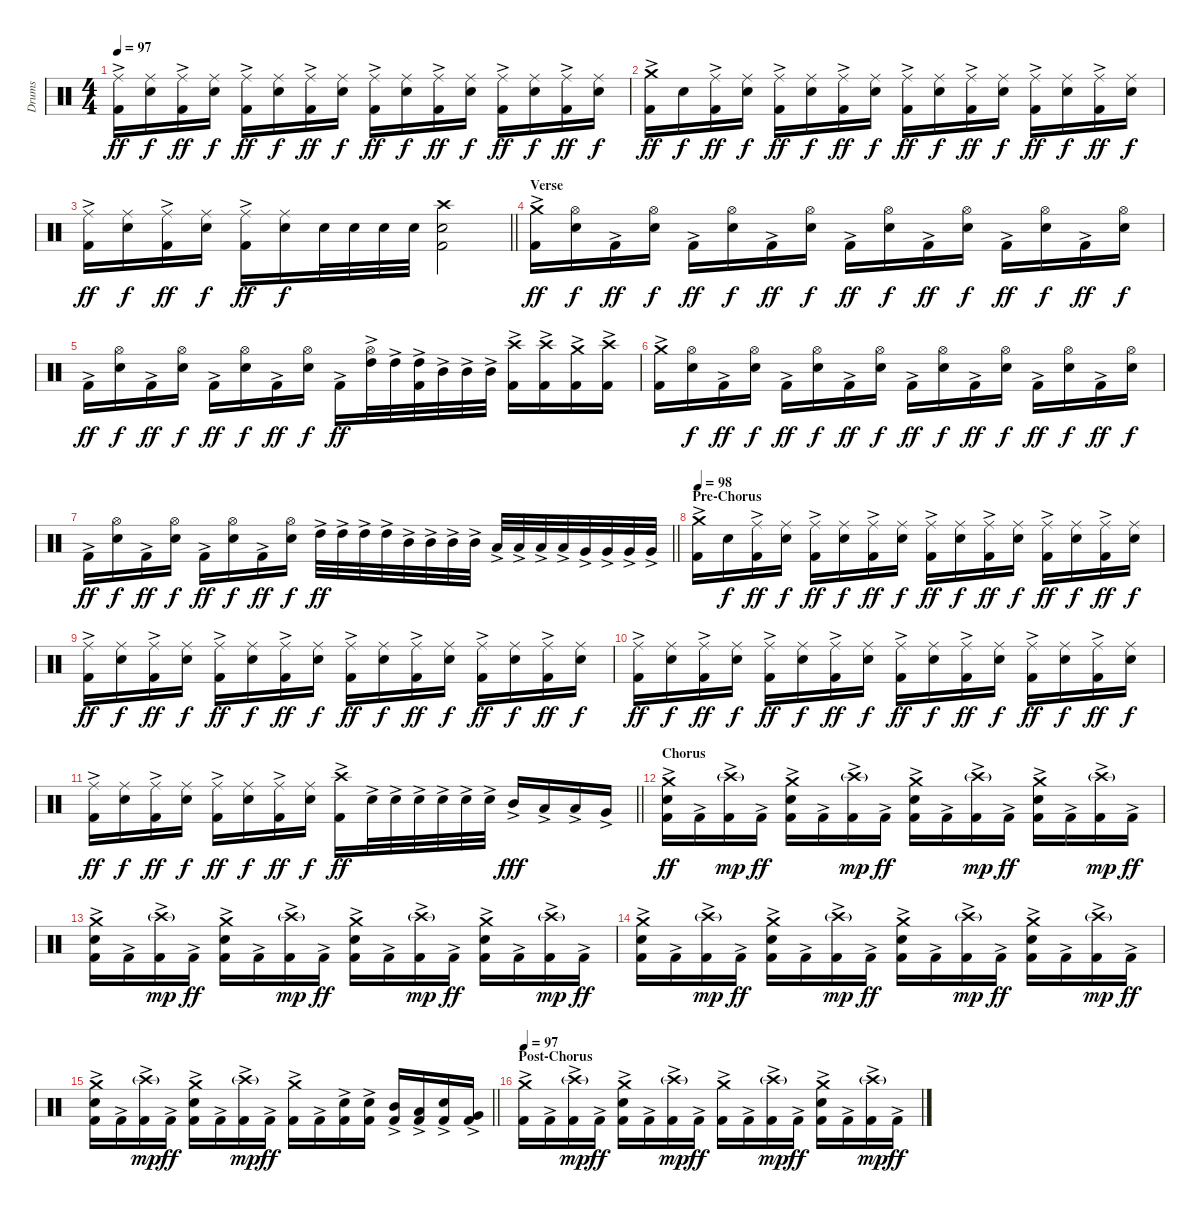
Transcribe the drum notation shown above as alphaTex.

\track ("Drums" "Drums") {instrument percussion}
\staff {score}
\articulation defaults
\ts (4 4)
\tempo 97
\clef neutral
\ks c
("Kick (hit) 2"{ac} "Ride (middle)").16{dy ff} ("Snare (hit) 2" "Ride (middle)").16{dy f} ("Kick (hit) 2"{ac} "Ride (middle)").16{dy ff} ("Snare (hit) 2" "Ride (middle)").16{dy f} ("Kick (hit) 2"{ac} "Ride (middle)").16{dy ff} ("Snare (hit) 2" "Ride (middle)").16{dy f} ("Kick (hit) 2"{ac} "Ride (middle)").16{dy ff} ("Snare (hit) 2" "Ride (middle)").16{dy f} ("Kick (hit) 2"{ac} "Ride (middle)").16{dy ff} ("Snare (hit) 2" "Ride (middle)").16{dy f} ("Kick (hit) 2"{ac} "Ride (middle)").16{dy ff} ("Snare (hit) 2" "Ride (middle)").16{dy f} ("Kick (hit) 2"{ac} "Ride (middle)").16{dy ff} ("Snare (hit) 2" "Ride (middle)").16{dy f} ("Kick (hit) 2"{ac} "Ride (middle)").16{dy ff} ("Snare (hit) 2" "Ride (middle)").16{dy f} |
("Kick (hit) 2"{ac} "Crash medium (hit)").16{dy ff} "Snare (hit) 2".16{dy f} ("Kick (hit) 2"{ac} "Ride (middle)").16{dy ff} ("Snare (hit) 2" "Ride (middle)").16{dy f} ("Kick (hit) 2"{ac} "Ride (middle)").16{dy ff} ("Snare (hit) 2" "Ride (middle)").16{dy f} ("Kick (hit) 2"{ac} "Ride (middle)").16{dy ff} ("Snare (hit) 2" "Ride (middle)").16{dy f} ("Kick (hit) 2"{ac} "Ride (middle)").16{dy ff} ("Snare (hit) 2" "Ride (middle)").16{dy f} ("Kick (hit) 2"{ac} "Ride (middle)").16{dy ff} ("Snare (hit) 2" "Ride (middle)").16{dy f} ("Kick (hit) 2"{ac} "Ride (middle)").16{dy ff} ("Snare (hit) 2" "Ride (middle)").16{dy f} ("Kick (hit) 2"{ac} "Ride (middle)").16{dy ff} ("Snare (hit) 2" "Ride (middle)").16{dy f} |
\barLineRight lightlight
("Kick (hit) 2"{ac} "Ride (middle)").16{dy ff} ("Snare (hit) 2" "Ride (middle)").16{dy f} ("Kick (hit) 2"{ac} "Ride (middle)").16{dy ff} ("Snare (hit) 2" "Ride (middle)").16{dy f} ("Kick (hit) 2"{ac} "Ride (middle)").16{dy ff} ("Snare (hit) 2" "Ride (middle)").16{dy f} "Snare (hit) 2".32 "Snare (hit) 2".32 "Snare (hit) 2".32 "Snare (hit) 2".32 ("Kick (hit) 2" "Snare (hit) 2" "Crash high (hit)").2 |
\section ("" "Verse")
("Kick (hit) 2"{ac} "Crash medium (hit)").16{dy ff} ("Snare (hit) 2" "Hi-Hat (open)").16{dy f} "Kick (hit) 2"{ac}.16{dy ff} ("Snare (hit) 2" "Hi-Hat (open)").16{dy f} "Kick (hit) 2"{ac}.16{dy ff} ("Snare (hit) 2" "Hi-Hat (open)").16{dy f} "Kick (hit) 2"{ac}.16{dy ff} ("Snare (hit) 2" "Hi-Hat (open)").16{dy f} "Kick (hit) 2"{ac}.16{dy ff} ("Snare (hit) 2" "Hi-Hat (open)").16{dy f} "Kick (hit) 2"{ac}.16{dy ff} ("Snare (hit) 2" "Hi-Hat (open)").16{dy f} "Kick (hit) 2"{ac}.16{dy ff} ("Snare (hit) 2" "Hi-Hat (open)").16{dy f} "Kick (hit) 2"{ac}.16{dy ff} ("Snare (hit) 2" "Hi-Hat (open)").16{dy f} |
"Kick (hit) 2"{ac}.16{dy ff} ("Snare (hit) 2" "Hi-Hat (open)").16{dy f} "Kick (hit) 2"{ac}.16{dy ff} ("Snare (hit) 2" "Hi-Hat (open)").16{dy f} "Kick (hit) 2"{ac}.16{dy ff} ("Snare (hit) 2" "Hi-Hat (open)").16{dy f} "Kick (hit) 2"{ac}.16{dy ff} ("Snare (hit) 2" "Hi-Hat (open)").16{dy f} "Kick (hit) 2"{ac}.16{dy ff} ("High Tom (hit)"{ac} "Hi-Hat (open)").32 "High Tom (hit)"{ac}.32 ("Kick (hit) 2"{ac} "High Tom (hit)"{ac}).32 "Mid Tom (hit)"{ac}.32 "Mid Tom (hit)"{ac}.32 "Mid Tom (hit)"{ac}.32 ("Kick (hit) 2"{ac} "Crash high (hit)").16 ("Kick (hit) 2"{ac} "Crash high (hit)").16 ("Kick (hit) 2"{ac} "Crash medium (hit)").16 ("Kick (hit) 2"{ac} "Crash high (hit)").16 |
("Kick (hit) 2"{ac} "Crash medium (hit)").16 ("Snare (hit) 2" "Hi-Hat (open)").16{dy f} "Kick (hit) 2"{ac}.16{dy ff} ("Snare (hit) 2" "Hi-Hat (open)").16{dy f} "Kick (hit) 2"{ac}.16{dy ff} ("Snare (hit) 2" "Hi-Hat (open)").16{dy f} "Kick (hit) 2"{ac}.16{dy ff} ("Snare (hit) 2" "Hi-Hat (open)").16{dy f} "Kick (hit) 2"{ac}.16{dy ff} ("Snare (hit) 2" "Hi-Hat (open)").16{dy f} "Kick (hit) 2"{ac}.16{dy ff} ("Snare (hit) 2" "Hi-Hat (open)").16{dy f} "Kick (hit) 2"{ac}.16{dy ff} ("Snare (hit) 2" "Hi-Hat (open)").16{dy f} "Kick (hit) 2"{ac}.16{dy ff} ("Snare (hit) 2" "Hi-Hat (open)").16{dy f} |
\barLineRight lightlight "Kick (hit) 2"{ac}.16{dy ff}
("Snare (hit) 2" "Hi-Hat (open)").16{dy f} "Kick (hit) 2"{ac}.16{dy ff} ("Snare (hit) 2" "Hi-Hat (open)").16{dy f} "Kick (hit) 2"{ac}.16{dy ff} ("Snare (hit) 2" "Hi-Hat (open)").16{dy f} "Kick (hit) 2"{ac}.16{dy ff} ("Snare (hit) 2" "Hi-Hat (open)").16{dy f} "High Tom (hit)"{ac}.32{dy ff} "High Tom (hit)"{ac}.32 "High Tom (hit)"{ac}.32 "High Tom (hit)"{ac}.32 "Mid Tom (hit)"{ac}.32 "Mid Tom (hit)"{ac}.32 "Mid Tom (hit)"{ac}.32 "Mid Tom (hit)"{ac}.32 "Low Tom (hit)"{ac}.32 "Low Tom (hit)"{ac}.32 "Low Tom (hit)"{ac}.32 "Low Tom (hit)"{ac}.32 "Very Low Tom (hit)"{ac}.32 "Very Low Tom (hit)"{ac}.32 "Very Low Tom (hit)"{ac}.32 "Very Low Tom (hit)"{ac}.32 |
\section ("" "Pre-Chorus")
\tempo 98
("Kick (hit) 2"{ac} "Crash medium (hit)").16 "Snare (hit) 2".16{dy f} ("Kick (hit) 2"{ac} "Ride (middle)").16{dy ff} ("Snare (hit) 2" "Ride (middle)").16{dy f} ("Kick (hit) 2"{ac} "Ride (middle)").16{dy ff} ("Snare (hit) 2" "Ride (middle)").16{dy f} ("Kick (hit) 2"{ac} "Ride (middle)").16{dy ff} ("Snare (hit) 2" "Ride (middle)").16{dy f} ("Kick (hit) 2"{ac} "Ride (middle)").16{dy ff} ("Snare (hit) 2" "Ride (middle)").16{dy f} ("Kick (hit) 2"{ac} "Ride (middle)").16{dy ff} ("Snare (hit) 2" "Ride (middle)").16{dy f} ("Kick (hit) 2"{ac} "Ride (middle)").16{dy ff} ("Snare (hit) 2" "Ride (middle)").16{dy f} ("Kick (hit) 2"{ac} "Ride (middle)").16{dy ff} ("Snare (hit) 2" "Ride (middle)").16{dy f} |
("Kick (hit) 2"{ac} "Ride (middle)").16{dy ff} ("Snare (hit) 2" "Ride (middle)").16{dy f} ("Kick (hit) 2"{ac} "Ride (middle)").16{dy ff} ("Snare (hit) 2" "Ride (middle)").16{dy f} ("Kick (hit) 2"{ac} "Ride (middle)").16{dy ff} ("Snare (hit) 2" "Ride (middle)").16{dy f} ("Kick (hit) 2"{ac} "Ride (middle)").16{dy ff} ("Snare (hit) 2" "Ride (middle)").16{dy f} ("Kick (hit) 2"{ac} "Ride (middle)").16{dy ff} ("Snare (hit) 2" "Ride (middle)").16{dy f} ("Kick (hit) 2"{ac} "Ride (middle)").16{dy ff} ("Snare (hit) 2" "Ride (middle)").16{dy f} ("Kick (hit) 2"{ac} "Ride (middle)").16{dy ff} ("Snare (hit) 2" "Ride (middle)").16{dy f} ("Kick (hit) 2"{ac} "Ride (middle)").16{dy ff} ("Snare (hit) 2" "Ride (middle)").16{dy f} |
("Kick (hit) 2"{ac} "Ride (middle)").16{dy ff} ("Snare (hit) 2" "Ride (middle)").16{dy f} ("Kick (hit) 2"{ac} "Ride (middle)").16{dy ff} ("Snare (hit) 2" "Ride (middle)").16{dy f} ("Kick (hit) 2"{ac} "Ride (middle)").16{dy ff} ("Snare (hit) 2" "Ride (middle)").16{dy f} ("Kick (hit) 2"{ac} "Ride (middle)").16{dy ff} ("Snare (hit) 2" "Ride (middle)").16{dy f} ("Kick (hit) 2"{ac} "Ride (middle)").16{dy ff} ("Snare (hit) 2" "Ride (middle)").16{dy f} ("Kick (hit) 2"{ac} "Ride (middle)").16{dy ff} ("Snare (hit) 2" "Ride (middle)").16{dy f} ("Kick (hit) 2"{ac} "Ride (middle)").16{dy ff} ("Snare (hit) 2" "Ride (middle)").16{dy f} ("Kick (hit) 2"{ac} "Ride (middle)").16{dy ff} ("Snare (hit) 2" "Ride (middle)").16{dy f} |
\barLineRight lightlight
("Kick (hit) 2"{ac} "Ride (middle)").16{dy ff} ("Snare (hit) 2" "Ride (middle)").16{dy f} ("Kick (hit) 2"{ac} "Ride (middle)").16{dy ff} ("Snare (hit) 2" "Ride (middle)").16{dy f} ("Kick (hit) 2"{ac} "Ride (middle)").16{dy ff} ("Snare (hit) 2" "Ride (middle)").16{dy f} ("Kick (hit) 2"{ac} "Ride (middle)").16{dy ff} ("Snare (hit) 2" "Ride (middle)").16{dy f} ("Kick (hit) 2"{ac} "Crash high (hit)").16{dy ff} "Snare (hit) 2"{ac}.32 "Snare (hit) 2"{ac}.32 "Snare (hit) 2"{ac}.32 "Snare (hit) 2"{ac}.32 "Snare (hit) 2"{ac}.32 "Snare (hit) 2"{ac}.32 "Mid Tom (hit)"{ac}.16{dy fff} "Low Tom (hit)"{ac}.16 "Low Tom (hit)"{ac}.16 "Very Low Tom (hit)"{ac}.16 |
\section ("" "Chorus")
("Kick (hit) 2"{ac} "Snare (hit) 2" "Crash medium (hit)").16{dy ff} "Kick (hit) 2"{ac}.16 ("Kick (hit) 2"{ac} "Crash high (hit)"{g}).16{dy mp} "Kick (hit) 2"{ac}.16{dy ff} ("Kick (hit) 2"{ac} "Snare (hit) 2" "Crash medium (hit)").16 "Kick (hit) 2"{ac}.16 ("Kick (hit) 2"{ac} "Crash high (hit)"{g}).16{dy mp} "Kick (hit) 2"{ac}.16{dy ff} ("Kick (hit) 2"{ac} "Snare (hit) 2" "Crash medium (hit)").16 "Kick (hit) 2"{ac}.16 ("Kick (hit) 2"{ac} "Crash high (hit)"{g}).16{dy mp} "Kick (hit) 2"{ac}.16{dy ff} ("Kick (hit) 2"{ac} "Snare (hit) 2" "Crash medium (hit)").16 "Kick (hit) 2"{ac}.16 ("Kick (hit) 2"{ac} "Crash high (hit)"{g}).16{dy mp} "Kick (hit) 2"{ac}.16{dy ff} |
("Kick (hit) 2"{ac} "Snare (hit) 2" "Crash medium (hit)").16 "Kick (hit) 2"{ac}.16 ("Kick (hit) 2"{ac} "Crash high (hit)"{g}).16{dy mp} "Kick (hit) 2"{ac}.16{dy ff} ("Kick (hit) 2"{ac} "Snare (hit) 2" "Crash medium (hit)").16 "Kick (hit) 2"{ac}.16 ("Kick (hit) 2"{ac} "Crash high (hit)"{g}).16{dy mp} "Kick (hit) 2"{ac}.16{dy ff} ("Kick (hit) 2"{ac} "Snare (hit) 2" "Crash medium (hit)").16 "Kick (hit) 2"{ac}.16 ("Kick (hit) 2"{ac} "Crash high (hit)"{g}).16{dy mp} "Kick (hit) 2"{ac}.16{dy ff} ("Kick (hit) 2"{ac} "Snare (hit) 2" "Crash medium (hit)").16 "Kick (hit) 2"{ac}.16 ("Kick (hit) 2"{ac} "Crash high (hit)"{g}).16{dy mp} "Kick (hit) 2"{ac}.16{dy ff} |
("Kick (hit) 2"{ac} "Snare (hit) 2" "Crash medium (hit)").16 "Kick (hit) 2"{ac}.16 ("Kick (hit) 2"{ac} "Crash high (hit)"{g}).16{dy mp} "Kick (hit) 2"{ac}.16{dy ff} ("Kick (hit) 2"{ac} "Snare (hit) 2" "Crash medium (hit)").16 "Kick (hit) 2"{ac}.16 ("Kick (hit) 2"{ac} "Crash high (hit)"{g}).16{dy mp} "Kick (hit) 2"{ac}.16{dy ff} ("Kick (hit) 2"{ac} "Snare (hit) 2" "Crash medium (hit)").16 "Kick (hit) 2"{ac}.16 ("Kick (hit) 2"{ac} "Crash high (hit)"{g}).16{dy mp} "Kick (hit) 2"{ac}.16{dy ff} ("Kick (hit) 2"{ac} "Snare (hit) 2" "Crash medium (hit)").16 "Kick (hit) 2"{ac}.16 ("Kick (hit) 2"{ac} "Crash high (hit)"{g}).16{dy mp} "Kick (hit) 2"{ac}.16{dy ff} |
\barLineRight lightlight
("Kick (hit) 2"{ac} "Snare (hit) 2" "Crash medium (hit)").16 "Kick (hit) 2"{ac}.16 ("Kick (hit) 2"{ac} "Crash high (hit)"{g}).16{dy mp} "Kick (hit) 2"{ac}.16{dy ff} ("Kick (hit) 2"{ac} "Snare (hit) 2" "Crash medium (hit)").16 "Kick (hit) 2"{ac}.16 ("Kick (hit) 2"{ac} "Crash high (hit)"{g}).16{dy mp} "Kick (hit) 2"{ac}.16{dy ff} ("Kick (hit) 2"{ac} "Crash medium (hit)").16 "Kick (hit) 2"{ac}.16 ("Kick (hit) 2"{ac} "Snare (hit) 2"{ac}).16 ("Kick (hit) 2"{ac} "Snare (hit) 2"{ac}).16 ("Kick (hit) 2"{ac} "Mid Tom (hit)"{ac}).16 ("Kick (hit) 2"{ac} "Low Tom (hit)"{ac}).16 ("Kick (hit) 2"{ac} "Snare (hit) 2"{ac}).16 ("Kick (hit) 2"{ac} "Very Low Tom (hit)"{ac}).16 |
\section ("" "Post-Chorus")
\tempo 97
("Kick (hit) 2"{ac} "Crash medium (hit)").16 "Kick (hit) 2"{ac}.16 ("Kick (hit) 2"{ac} "Crash high (hit)"{g}).16{dy mp} "Kick (hit) 2"{ac}.16{dy ff} ("Kick (hit) 2"{ac} "Snare (hit) 2" "Crash medium (hit)").16 "Kick (hit) 2"{ac}.16 ("Kick (hit) 2"{ac} "Crash high (hit)"{g}).16{dy mp} "Kick (hit) 2"{ac}.16{dy ff} ("Kick (hit) 2"{ac} "Crash medium (hit)").16 "Kick (hit) 2"{ac}.16 ("Kick (hit) 2"{ac} "Crash high (hit)"{g}).16{dy mp} "Kick (hit) 2"{ac}.16{dy ff} ("Kick (hit) 2"{ac} "Snare (hit) 2" "Crash medium (hit)").16 "Kick (hit) 2"{ac}.16 ("Kick (hit) 2"{ac} "Crash high (hit)"{g}).16{dy mp} "Kick (hit) 2"{ac}.16{dy ff}
